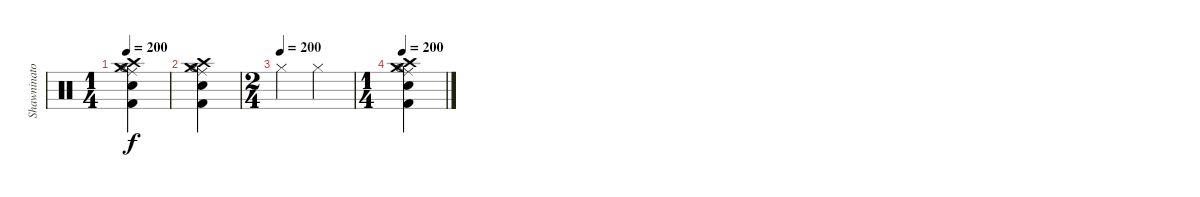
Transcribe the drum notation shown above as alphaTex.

\track ("Shawninator-Drums" "Shawninato") {instrument percussion}
\staff {score}
\articulation defaults
\ts (1 4)
\tempo 200
\clef neutral
\ks c
("Hi-Hat (open)" "Crash medium (hit)" "Crash high (hit)" "Ride (middle)" "Kick (hit) 2" "Snare (hit) 2").4{dy f} |
("Hi-Hat (open)" "Crash medium (hit)" "Crash high (hit)" "Ride (middle)" "Kick (hit) 2" "Snare (hit) 2").4 |
\ts (2 4)
\tempo (200)
"Hi-Hat (closed)".4 "Hi-Hat (closed)".4 |
\ts (1 4)
\tempo 200
("Hi-Hat (open)" "Crash medium (hit)" "Crash high (hit)" "Ride (middle)" "Kick (hit) 2" "Snare (hit) 2").4
